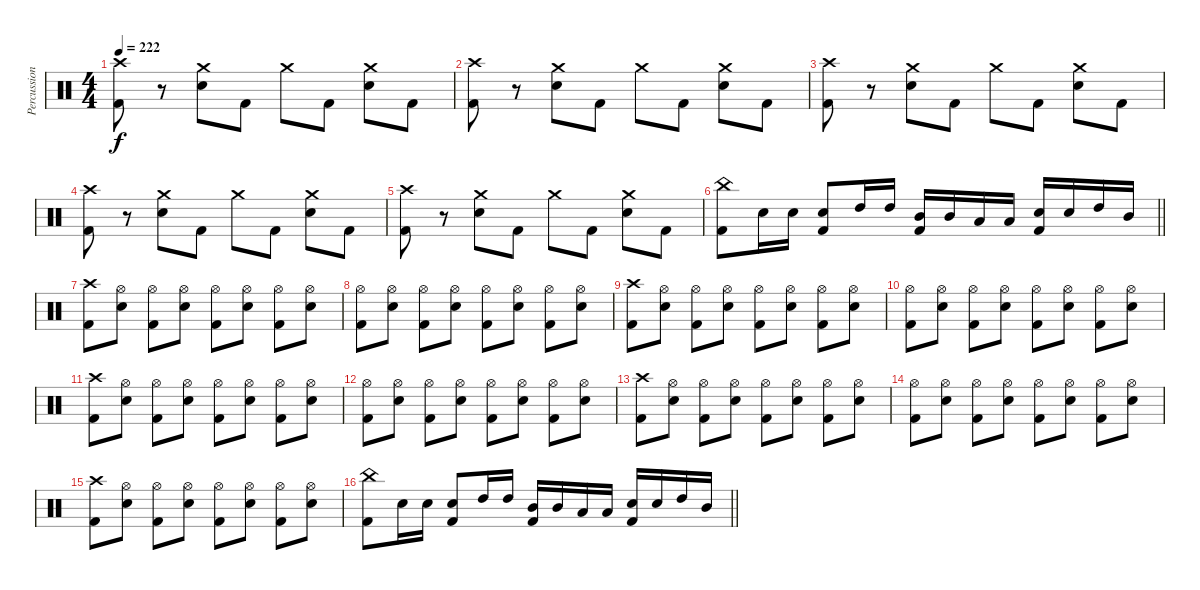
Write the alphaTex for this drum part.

\track ("Percussions" "Percussion") {instrument percussion}
\staff {score}
\articulation defaults
\ts (4 4)
\tempo 222
\clef neutral
\ks c
("Crash high (hit)" "Kick (hit) 2").8{dy f} r.8 ("Crash medium (hit)" "Electric Snare (hit)").8 "Kick (hit) 2".8 "Crash medium (hit)".8 "Kick (hit) 2".8 ("Crash medium (hit)" "Electric Snare (hit)").8 "Kick (hit) 2".8 |
("Crash high (hit)" "Kick (hit) 2").8 r.8 ("Crash medium (hit)" "Electric Snare (hit)").8 "Kick (hit) 2".8 "Crash medium (hit)".8 "Kick (hit) 2".8 ("Crash medium (hit)" "Electric Snare (hit)").8 "Kick (hit) 2".8 |
("Crash high (hit)" "Kick (hit) 2").8 r.8 ("Crash medium (hit)" "Electric Snare (hit)").8 "Kick (hit) 2".8 "Crash medium (hit)".8 "Kick (hit) 2".8 ("Crash medium (hit)" "Electric Snare (hit)").8 "Kick (hit) 2".8 |
("Crash high (hit)" "Kick (hit) 2").8 r.8 ("Crash medium (hit)" "Electric Snare (hit)").8 "Kick (hit) 2".8 "Crash medium (hit)".8 "Kick (hit) 2".8 ("Crash medium (hit)" "Electric Snare (hit)").8 "Kick (hit) 2".8 |
("Crash high (hit)" "Kick (hit) 2").8 r.8 ("Crash medium (hit)" "Electric Snare (hit)").8 "Kick (hit) 2".8 "Crash medium (hit)".8 "Kick (hit) 2".8 ("Crash medium (hit)" "Electric Snare (hit)").8 "Kick (hit) 2".8 |
\barLineRight lightlight
("China (hit)" "Kick (hit) 2").8 "Electric Snare (hit)".16 "Electric Snare (hit)".16 ("Electric Snare (hit)" "Kick (hit) 2").8 "High Tom (hit)".16 "High Tom (hit)".16 ("Mid Tom (hit)" "Kick (hit) 2").16 "Mid Tom (hit)".16 "Low Tom (hit)".16 "Low Tom (hit)".16 ("Electric Snare (hit)" "Kick (hit) 2").16 "Electric Snare (hit)".16 "High Tom (hit)".16 "Mid Tom (hit)".16 |
("Crash high (hit)" "Kick (hit) 2").8 ("Hi-Hat (open)" "Electric Snare (hit)").8 ("Hi-Hat (open)" "Kick (hit) 2").8 ("Hi-Hat (open)" "Electric Snare (hit)").8 ("Hi-Hat (open)" "Kick (hit) 2").8 ("Hi-Hat (open)" "Electric Snare (hit)").8 ("Hi-Hat (open)" "Kick (hit) 2").8 ("Hi-Hat (open)" "Electric Snare (hit)").8 |
("Hi-Hat (open)" "Kick (hit) 2").8 ("Hi-Hat (open)" "Electric Snare (hit)").8 ("Hi-Hat (open)" "Kick (hit) 2").8 ("Hi-Hat (open)" "Electric Snare (hit)").8 ("Hi-Hat (open)" "Kick (hit) 2").8 ("Hi-Hat (open)" "Electric Snare (hit)").8 ("Hi-Hat (open)" "Kick (hit) 2").8 ("Hi-Hat (open)" "Electric Snare (hit)").8 |
("Crash high (hit)" "Kick (hit) 2").8 ("Hi-Hat (open)" "Electric Snare (hit)").8 ("Hi-Hat (open)" "Kick (hit) 2").8 ("Hi-Hat (open)" "Electric Snare (hit)").8 ("Hi-Hat (open)" "Kick (hit) 2").8 ("Hi-Hat (open)" "Electric Snare (hit)").8 ("Hi-Hat (open)" "Kick (hit) 2").8 ("Hi-Hat (open)" "Electric Snare (hit)").8 |
("Hi-Hat (open)" "Kick (hit) 2").8 ("Hi-Hat (open)" "Electric Snare (hit)").8 ("Hi-Hat (open)" "Kick (hit) 2").8 ("Hi-Hat (open)" "Electric Snare (hit)").8 ("Hi-Hat (open)" "Kick (hit) 2").8 ("Hi-Hat (open)" "Electric Snare (hit)").8 ("Hi-Hat (open)" "Kick (hit) 2").8 ("Hi-Hat (open)" "Electric Snare (hit)").8 |
("Crash high (hit)" "Kick (hit) 2").8 ("Hi-Hat (open)" "Electric Snare (hit)").8 ("Hi-Hat (open)" "Kick (hit) 2").8 ("Hi-Hat (open)" "Electric Snare (hit)").8 ("Hi-Hat (open)" "Kick (hit) 2").8 ("Hi-Hat (open)" "Electric Snare (hit)").8 ("Hi-Hat (open)" "Kick (hit) 2").8 ("Hi-Hat (open)" "Electric Snare (hit)").8 |
("Hi-Hat (open)" "Kick (hit) 2").8 ("Hi-Hat (open)" "Electric Snare (hit)").8 ("Hi-Hat (open)" "Kick (hit) 2").8 ("Hi-Hat (open)" "Electric Snare (hit)").8 ("Hi-Hat (open)" "Kick (hit) 2").8 ("Hi-Hat (open)" "Electric Snare (hit)").8 ("Hi-Hat (open)" "Kick (hit) 2").8 ("Hi-Hat (open)" "Electric Snare (hit)").8 |
("Crash high (hit)" "Kick (hit) 2").8 ("Hi-Hat (open)" "Electric Snare (hit)").8 ("Hi-Hat (open)" "Kick (hit) 2").8 ("Hi-Hat (open)" "Electric Snare (hit)").8 ("Hi-Hat (open)" "Kick (hit) 2").8 ("Hi-Hat (open)" "Electric Snare (hit)").8 ("Hi-Hat (open)" "Kick (hit) 2").8 ("Hi-Hat (open)" "Electric Snare (hit)").8 |
("Hi-Hat (open)" "Kick (hit) 2").8 ("Hi-Hat (open)" "Electric Snare (hit)").8 ("Hi-Hat (open)" "Kick (hit) 2").8 ("Hi-Hat (open)" "Electric Snare (hit)").8 ("Hi-Hat (open)" "Kick (hit) 2").8 ("Hi-Hat (open)" "Electric Snare (hit)").8 ("Hi-Hat (open)" "Kick (hit) 2").8 ("Hi-Hat (open)" "Electric Snare (hit)").8 |
("Crash high (hit)" "Kick (hit) 2").8 ("Hi-Hat (open)" "Electric Snare (hit)").8 ("Hi-Hat (open)" "Kick (hit) 2").8 ("Hi-Hat (open)" "Electric Snare (hit)").8 ("Hi-Hat (open)" "Kick (hit) 2").8 ("Hi-Hat (open)" "Electric Snare (hit)").8 ("Hi-Hat (open)" "Kick (hit) 2").8 ("Hi-Hat (open)" "Electric Snare (hit)").8 |
\barLineRight lightlight
("China (hit)" "Kick (hit) 2").8 "Electric Snare (hit)".16 "Electric Snare (hit)".16 ("Electric Snare (hit)" "Kick (hit) 2").8 "High Tom (hit)".16 "High Tom (hit)".16 ("Mid Tom (hit)" "Kick (hit) 2").16 "Mid Tom (hit)".16 "Low Tom (hit)".16 "Low Tom (hit)".16 ("Electric Snare (hit)" "Kick (hit) 2").16 "Electric Snare (hit)".16 "High Tom (hit)".16 "Mid Tom (hit)".16
